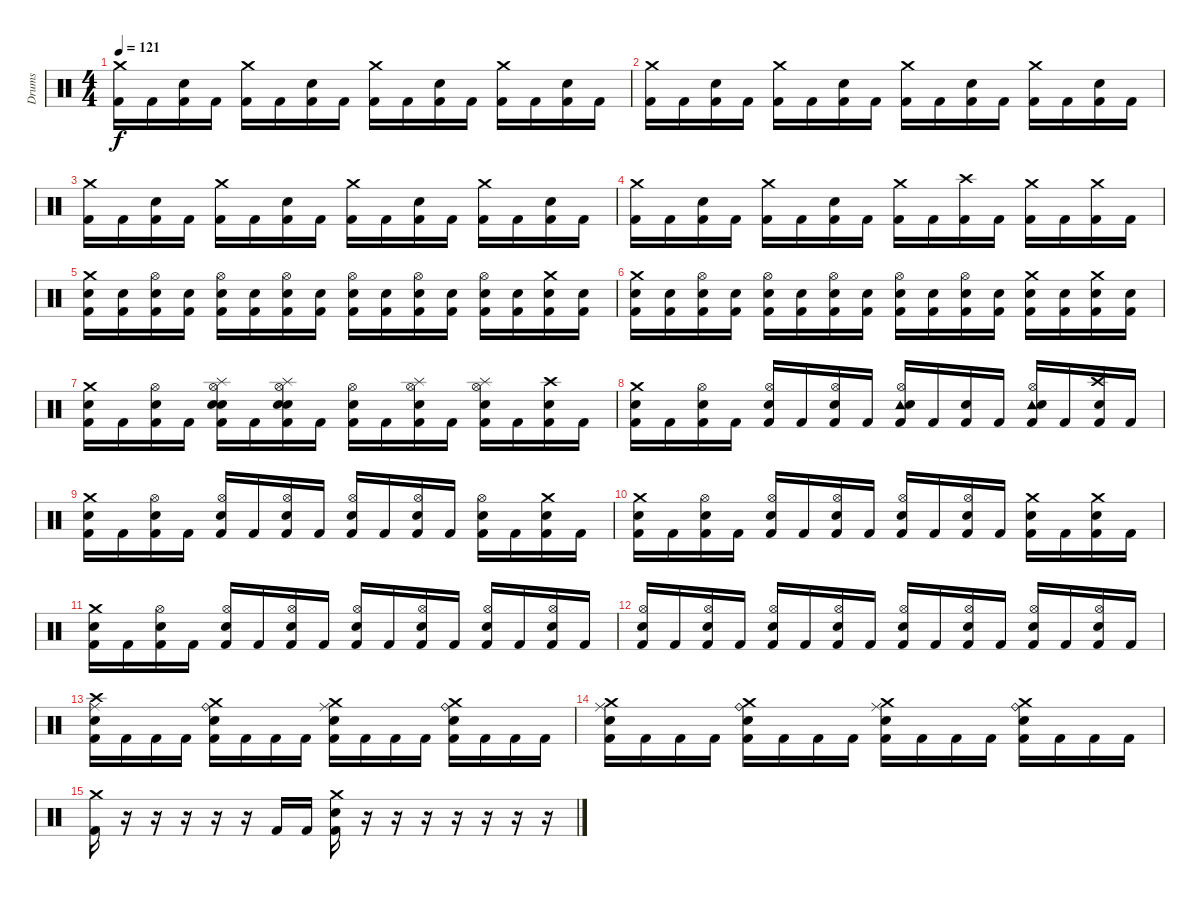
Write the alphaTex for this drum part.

\track ("Drums" "Drums") {instrument percussion}
\staff {score}
\articulation defaults
\ts (4 4)
\tempo 121
\clef neutral
\ks c
("Crash medium (hit)" "Kick (hit) 2").16{dy f} "Kick (hit) 2".16 ("Electric Snare (hit)" "Kick (hit) 2").16 "Kick (hit) 2".16 ("Crash medium (hit)" "Kick (hit) 2").16 "Kick (hit) 2".16 ("Electric Snare (hit)" "Kick (hit) 2").16 "Kick (hit) 2".16 ("Crash medium (hit)" "Kick (hit) 2").16 "Kick (hit) 2".16 ("Electric Snare (hit)" "Kick (hit) 2").16 "Kick (hit) 2".16 ("Crash medium (hit)" "Kick (hit) 2").16 "Kick (hit) 2".16 ("Electric Snare (hit)" "Kick (hit) 2").16 "Kick (hit) 2".16 |
("Crash medium (hit)" "Kick (hit) 2").16 "Kick (hit) 2".16 ("Electric Snare (hit)" "Kick (hit) 2").16 "Kick (hit) 2".16 ("Crash medium (hit)" "Kick (hit) 2").16 "Kick (hit) 2".16 ("Electric Snare (hit)" "Kick (hit) 2").16 "Kick (hit) 2".16 ("Crash medium (hit)" "Kick (hit) 2").16 "Kick (hit) 2".16 ("Electric Snare (hit)" "Kick (hit) 2").16 "Kick (hit) 2".16 ("Crash medium (hit)" "Kick (hit) 2").16 "Kick (hit) 2".16 ("Electric Snare (hit)" "Kick (hit) 2").16 "Kick (hit) 2".16 |
("Crash medium (hit)" "Kick (hit) 2").16 "Kick (hit) 2".16 ("Electric Snare (hit)" "Kick (hit) 2").16 "Kick (hit) 2".16 ("Crash medium (hit)" "Kick (hit) 2").16 "Kick (hit) 2".16 ("Electric Snare (hit)" "Kick (hit) 2").16 "Kick (hit) 2".16 ("Crash medium (hit)" "Kick (hit) 2").16 "Kick (hit) 2".16 ("Electric Snare (hit)" "Kick (hit) 2").16 "Kick (hit) 2".16 ("Crash medium (hit)" "Kick (hit) 2").16 "Kick (hit) 2".16 ("Electric Snare (hit)" "Kick (hit) 2").16 "Kick (hit) 2".16 |
("Crash medium (hit)" "Kick (hit) 2").16 "Kick (hit) 2".16 ("Electric Snare (hit)" "Kick (hit) 2").16 "Kick (hit) 2".16 ("Crash medium (hit)" "Kick (hit) 2").16 "Kick (hit) 2".16 ("Electric Snare (hit)" "Kick (hit) 2").16 "Kick (hit) 2".16 ("Crash medium (hit)" "Kick (hit) 2").16 "Kick (hit) 2".16 ("Crash high (hit)" "Kick (hit) 2").16 "Kick (hit) 2".16 ("Crash medium (hit)" "Kick (hit) 2").16 "Kick (hit) 2".16 ("Crash medium (hit)" "Kick (hit) 2").16 "Kick (hit) 2".16 |
("Crash medium (hit)" "Electric Snare (hit)" "Kick (hit) 2").16 ("Electric Snare (hit)" "Kick (hit) 2").16 ("Hi-Hat (open)" "Electric Snare (hit)" "Kick (hit) 2").16 ("Electric Snare (hit)" "Kick (hit) 2").16 ("Hi-Hat (open)" "Electric Snare (hit)" "Kick (hit) 2").16 ("Electric Snare (hit)" "Kick (hit) 2").16 ("Hi-Hat (open)" "Electric Snare (hit)" "Kick (hit) 2").16 ("Electric Snare (hit)" "Kick (hit) 2").16 ("Hi-Hat (open)" "Electric Snare (hit)" "Kick (hit) 2").16 ("Electric Snare (hit)" "Kick (hit) 2").16 ("Hi-Hat (open)" "Electric Snare (hit)" "Kick (hit) 2").16 ("Electric Snare (hit)" "Kick (hit) 2").16 ("Hi-Hat (open)" "Electric Snare (hit)" "Kick (hit) 2").16 ("Electric Snare (hit)" "Kick (hit) 2").16 ("Crash medium (hit)" "Electric Snare (hit)" "Kick (hit) 2").16 ("Electric Snare (hit)" "Kick (hit) 2").16 |
("Crash medium (hit)" "Electric Snare (hit)" "Kick (hit) 2").16 ("Electric Snare (hit)" "Kick (hit) 2").16 ("Hi-Hat (open)" "Electric Snare (hit)" "Kick (hit) 2").16 ("Electric Snare (hit)" "Kick (hit) 2").16 ("Hi-Hat (open)" "Electric Snare (hit)" "Kick (hit) 2").16 ("Electric Snare (hit)" "Kick (hit) 2").16 ("Hi-Hat (open)" "Electric Snare (hit)" "Kick (hit) 2").16 ("Electric Snare (hit)" "Kick (hit) 2").16 ("Hi-Hat (open)" "Electric Snare (hit)" "Kick (hit) 2").16 ("Electric Snare (hit)" "Kick (hit) 2").16 ("Hi-Hat (open)" "Electric Snare (hit)" "Kick (hit) 2").16 ("Electric Snare (hit)" "Kick (hit) 2").16 ("Crash medium (hit)" "Electric Snare (hit)" "Kick (hit) 2").16 ("Electric Snare (hit)" "Kick (hit) 2").16 ("Crash medium (hit)" "Electric Snare (hit)" "Kick (hit) 2").16 ("Electric Snare (hit)" "Kick (hit) 2").16 |
("Crash medium (hit)" "Snare (hit) 2" "Kick (hit) 2").16 "Kick (hit) 2".16 ("Hi-Hat (open)" "Snare (hit) 2" "Kick (hit) 2").16 "Kick (hit) 2".16 ("Hi-Hat (open)" "Splash (hit)" "Electric Snare (hit)" "Snare (hit) 2" "Kick (hit) 2").16 "Kick (hit) 2".16 ("Hi-Hat (open)" "Splash (hit)" "Electric Snare (hit)" "Snare (hit) 2" "Kick (hit) 2").16 "Kick (hit) 2".16 ("Hi-Hat (open)" "Snare (hit) 2" "Kick (hit) 2").16 "Kick (hit) 2".16 ("Hi-Hat (open)" "Splash (hit)" "Snare (hit) 2" "Kick (hit) 2").16 "Kick (hit) 2".16 ("Hi-Hat (open)" "Splash (hit)" "Snare (hit) 2" "Kick (hit) 2").16 "Kick (hit) 2".16 ("Crash high (hit)" "Snare (hit) 2" "Kick (hit) 2").16 "Kick (hit) 2".16 |
("Crash medium (hit)" "Snare (hit) 2" "Kick (hit) 2").16 "Kick (hit) 2".16 ("Hi-Hat (open)" "Snare (hit) 2" "Kick (hit) 2").16 "Kick (hit) 2".16 ("Hi-Hat (open)" "Snare (hit) 2" "Kick (hit) 2").16 "Kick (hit) 2".16 ("Hi-Hat (open)" "Snare (hit) 2" "Kick (hit) 2").16 "Kick (hit) 2".16 ("Hi-Hat (open)" "Tambourine (hit)" "Snare (hit) 2" "Kick (hit) 2").16 "Kick (hit) 2".16 ("Snare (hit) 2" "Kick (hit) 2").16 "Kick (hit) 2".16 ("Hi-Hat (open)" "Tambourine (hit)" "Snare (hit) 2" "Kick (hit) 2").16 "Kick (hit) 2".16 ("Crash high (hit)" "Snare (hit) 2" "Kick (hit) 2").16 "Kick (hit) 2".16 |
("Crash medium (hit)" "Snare (hit) 2" "Kick (hit) 2").16 "Kick (hit) 2".16 ("Hi-Hat (open)" "Snare (hit) 2" "Kick (hit) 2").16 "Kick (hit) 2".16 ("Hi-Hat (open)" "Snare (hit) 2" "Kick (hit) 2").16 "Kick (hit) 2".16 ("Hi-Hat (open)" "Snare (hit) 2" "Kick (hit) 2").16 "Kick (hit) 2".16 ("Hi-Hat (open)" "Snare (hit) 2" "Kick (hit) 2").16 "Kick (hit) 2".16 ("Hi-Hat (open)" "Snare (hit) 2" "Kick (hit) 2").16 "Kick (hit) 2".16 ("Hi-Hat (open)" "Snare (hit) 2" "Kick (hit) 2").16 "Kick (hit) 2".16 ("Crash medium (hit)" "Snare (hit) 2" "Kick (hit) 2").16 "Kick (hit) 2".16 |
("Crash medium (hit)" "Snare (hit) 2" "Kick (hit) 2").16 "Kick (hit) 2".16 ("Hi-Hat (open)" "Snare (hit) 2" "Kick (hit) 2").16 "Kick (hit) 2".16 ("Hi-Hat (open)" "Snare (hit) 2" "Kick (hit) 2").16 "Kick (hit) 2".16 ("Hi-Hat (open)" "Snare (hit) 2" "Kick (hit) 2").16 "Kick (hit) 2".16 ("Hi-Hat (open)" "Snare (hit) 2" "Kick (hit) 2").16 "Kick (hit) 2".16 ("Hi-Hat (open)" "Snare (hit) 2" "Kick (hit) 2").16 "Kick (hit) 2".16 ("Crash medium (hit)" "Snare (hit) 2" "Kick (hit) 2").16 "Kick (hit) 2".16 ("Crash medium (hit)" "Snare (hit) 2" "Kick (hit) 2").16 "Kick (hit) 2".16 |
("Crash medium (hit)" "Snare (hit) 2" "Kick (hit) 2").16 "Kick (hit) 2".16 ("Hi-Hat (open)" "Snare (hit) 2" "Kick (hit) 2").16 "Kick (hit) 2".16 ("Hi-Hat (open)" "Snare (hit) 2" "Kick (hit) 2").16 "Kick (hit) 2".16 ("Hi-Hat (open)" "Snare (hit) 2" "Kick (hit) 2").16 "Kick (hit) 2".16 ("Hi-Hat (open)" "Snare (hit) 2" "Kick (hit) 2").16 "Kick (hit) 2".16 ("Hi-Hat (open)" "Snare (hit) 2" "Kick (hit) 2").16 "Kick (hit) 2".16 ("Hi-Hat (open)" "Snare (hit) 2" "Kick (hit) 2").16 "Kick (hit) 2".16 ("Hi-Hat (open)" "Snare (hit) 2" "Kick (hit) 2").16 "Kick (hit) 2".16 |
("Hi-Hat (open)" "Snare (hit) 2" "Kick (hit) 2").16 "Kick (hit) 2".16 ("Hi-Hat (open)" "Snare (hit) 2" "Kick (hit) 2").16 "Kick (hit) 2".16 ("Hi-Hat (open)" "Snare (hit) 2" "Kick (hit) 2").16 "Kick (hit) 2".16 ("Hi-Hat (open)" "Snare (hit) 2" "Kick (hit) 2").16 "Kick (hit) 2".16 ("Hi-Hat (open)" "Snare (hit) 2" "Kick (hit) 2").16 "Kick (hit) 2".16 ("Hi-Hat (open)" "Snare (hit) 2" "Kick (hit) 2").16 "Kick (hit) 2".16 ("Hi-Hat (open)" "Snare (hit) 2" "Kick (hit) 2").16 "Kick (hit) 2".16 ("Hi-Hat (open)" "Snare (hit) 2" "Kick (hit) 2").16 "Kick (hit) 2".16 |
("Crash high (hit)" "Ride (middle)" "Electric Snare (hit)" "Kick (hit) 2").16 "Kick (hit) 2".16 "Kick (hit) 2".16 "Kick (hit) 2".16 ("Crash medium (hit)" "Ride (bell)" "Electric Snare (hit)" "Kick (hit) 2").16 "Kick (hit) 2".16 "Kick (hit) 2".16 "Kick (hit) 2".16 ("Crash medium (hit)" "Ride (middle)" "Electric Snare (hit)" "Kick (hit) 2").16 "Kick (hit) 2".16 "Kick (hit) 2".16 "Kick (hit) 2".16 ("Crash medium (hit)" "Ride (bell)" "Electric Snare (hit)" "Kick (hit) 2").16 "Kick (hit) 2".16 "Kick (hit) 2".16 "Kick (hit) 2".16 |
("Crash medium (hit)" "Ride (middle)" "Electric Snare (hit)" "Kick (hit) 2").16 "Kick (hit) 2".16 "Kick (hit) 2".16 "Kick (hit) 2".16 ("Crash medium (hit)" "Ride (bell)" "Electric Snare (hit)" "Kick (hit) 2").16 "Kick (hit) 2".16 "Kick (hit) 2".16 "Kick (hit) 2".16 ("Crash medium (hit)" "Ride (middle)" "Electric Snare (hit)" "Kick (hit) 2").16 "Kick (hit) 2".16 "Kick (hit) 2".16 "Kick (hit) 2".16 ("Crash medium (hit)" "Ride (bell)" "Electric Snare (hit)" "Kick (hit) 2").16 "Kick (hit) 2".16 "Kick (hit) 2".16 "Kick (hit) 2".16 |
("Crash medium (hit)" "Kick (hit) 2").16 r.16 r.16 r.16 r.16 r.16 "Kick (hit) 2".16 "Kick (hit) 2".16 ("Crash medium (hit)" "Electric Snare (hit)" "Kick (hit) 2").16 r.16 r.16 r.16 r.16 r.16 r.16 r.16
